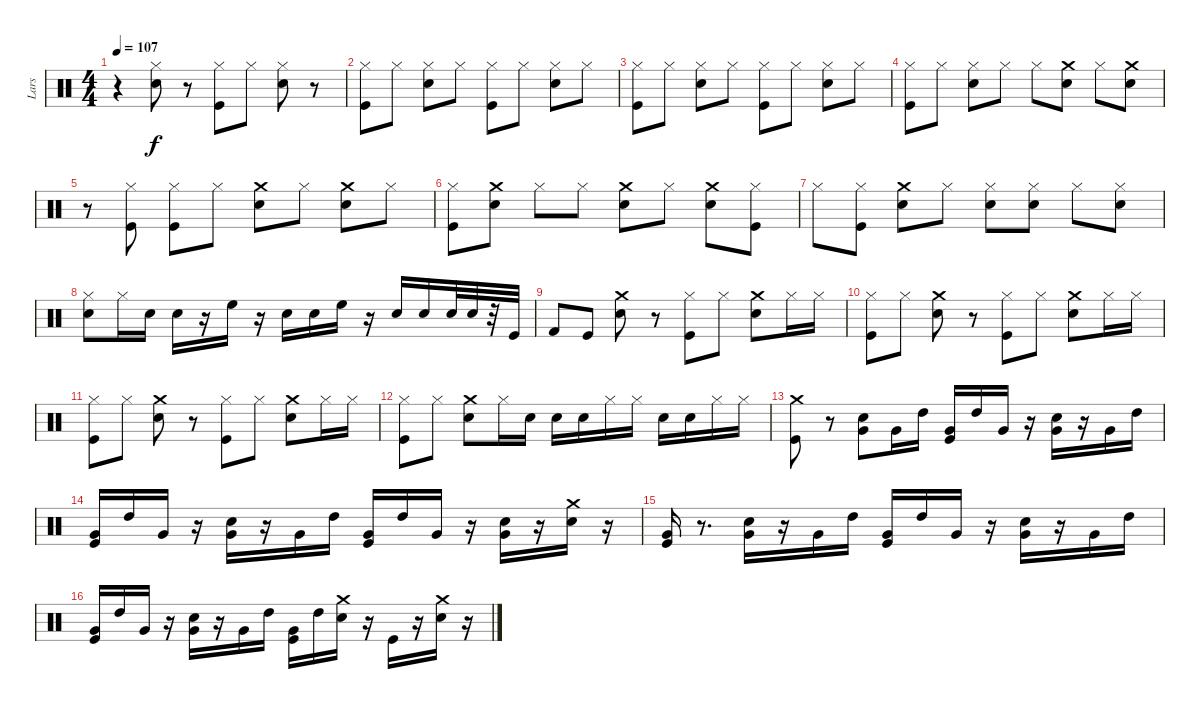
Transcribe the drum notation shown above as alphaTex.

\track ("Lars" "Lars") {instrument percussion}
\staff {score}
\articulation defaults
\ts (4 4)
\tempo 107
\clef neutral
\ks c
r.4{dy f} ("Hi-Hat (closed)" "Snare (hit) 2").8 r.8 ("Kick (hit)" "Hi-Hat (closed)").8 "Hi-Hat (closed)".8 ("Snare (hit) 2" "Hi-Hat (closed)").8 r.8 |
("Hi-Hat (closed)" "Kick (hit)").8 "Hi-Hat (closed)".8 ("Snare (hit) 2" "Hi-Hat (closed)").8 "Hi-Hat (closed)".8 ("Kick (hit)" "Hi-Hat (closed)").8 "Hi-Hat (closed)".8 ("Snare (hit) 2" "Hi-Hat (closed)").8 "Hi-Hat (closed)".8 |
("Hi-Hat (closed)" "Kick (hit)").8 "Hi-Hat (closed)".8 ("Snare (hit) 2" "Hi-Hat (closed)").8 "Hi-Hat (closed)".8 ("Hi-Hat (closed)" "Kick (hit)").8 "Hi-Hat (closed)".8 ("Snare (hit) 2" "Hi-Hat (closed)").8 "Hi-Hat (closed)".8 |
("Hi-Hat (closed)" "Kick (hit)").8 "Hi-Hat (closed)".8 ("Snare (hit) 2" "Hi-Hat (closed)").8 "Hi-Hat (closed)".8 "Hi-Hat (closed)".8 ("Crash medium (hit)" "Snare (hit) 2").8 "Hi-Hat (closed)".8 ("Crash medium (hit)" "Snare (hit) 2").8 |
r.8 ("Kick (hit)" "Hi-Hat (closed)").8 ("Hi-Hat (closed)" "Kick (hit)").8 "Hi-Hat (closed)".8 ("Crash medium (hit)" "Snare (hit) 2").8 "Hi-Hat (closed)".8 ("Crash medium (hit)" "Snare (hit) 2").8 "Hi-Hat (closed)".8 |
("Kick (hit)" "Hi-Hat (closed)").8 ("Crash medium (hit)" "Snare (hit) 2").8 "Hi-Hat (closed)".8 "Hi-Hat (closed)".8 ("Snare (hit) 2" "Crash medium (hit)").8 "Hi-Hat (closed)".8 ("Crash medium (hit)" "Snare (hit) 2").8 ("Hi-Hat (closed)" "Kick (hit)").8 |
"Hi-Hat (closed)".8 ("Hi-Hat (closed)" "Kick (hit)").8 ("Crash medium (hit)" "Snare (hit) 2").8 "Hi-Hat (closed)".8 ("Snare (hit) 2" "Hi-Hat (closed)").8 ("Hi-Hat (closed)" "Snare (hit) 2").8 "Hi-Hat (closed)".8 ("Snare (hit) 2" "Hi-Hat (closed)").8 |
("Hi-Hat (closed)" "Snare (hit) 2").8 "Hi-Hat (closed)".16 "Snare (hit) 2".16 "Snare (hit) 2".16 r.16 "High Floor Tom (hit)".16 r.16 "Snare (hit) 2".16 "Snare (hit) 2".16 "High Floor Tom (hit)".16 r.16 "Snare (hit) 2".16 "Snare (hit) 2".16 "Snare (hit) 2".32 "Snare (hit) 2".32 r.32 "Kick (hit)".32 |
"Kick (hit) 2".8 "Kick (hit)".8 ("Crash medium (hit)" "Snare (hit) 2").8 r.8 ("Hi-Hat (closed)" "Kick (hit)").8 "Hi-Hat (closed)".8 ("Crash medium (hit)" "Snare (hit) 2").8 "Hi-Hat (closed)".16 "Hi-Hat (closed)".16 |
("Hi-Hat (closed)" "Kick (hit)").8 "Hi-Hat (closed)".8 ("Crash medium (hit)" "Snare (hit) 2").8 r.8 ("Hi-Hat (closed)" "Kick (hit)").8 "Hi-Hat (closed)".8 ("Crash medium (hit)" "Snare (hit) 2").8 "Hi-Hat (closed)".16 "Hi-Hat (closed)".16 |
("Hi-Hat (closed)" "Kick (hit)").8 "Hi-Hat (closed)".8 ("Crash medium (hit)" "Snare (hit) 2").8 r.8 ("Hi-Hat (closed)" "Kick (hit)").8 "Hi-Hat (closed)".8 ("Crash medium (hit)" "Snare (hit) 2").8 "Hi-Hat (closed)".16 "Hi-Hat (closed)".16 |
("Hi-Hat (closed)" "Kick (hit)").8 "Hi-Hat (closed)".8 ("Crash medium (hit)" "Snare (hit) 2").8 "Hi-Hat (closed)".16 "Snare (hit) 2".16 "Snare (hit) 2".16 "Snare (hit) 2".16 "Hi-Hat (closed)".16 "Hi-Hat (closed)".16 "Snare (hit) 2".16 "Snare (hit) 2".16 "Hi-Hat (closed)".16 "Hi-Hat (closed)".16 |
("Crash medium (hit)" "Kick (hit)").8 r.8 ("Very Low Tom (hit)" "Snare (hit) 2").8 "Very Low Tom (hit)".16 "High Tom (hit)".16 ("Very Low Tom (hit)" "Kick (hit)").16 "High Tom (hit)".16 "Very Low Tom (hit)".16 r.16 ("Very Low Tom (hit)" "Snare (hit) 2").16 r.16 "Very Low Tom (hit)".16 "High Tom (hit)".16 |
("Very Low Tom (hit)" "Kick (hit)").16 "High Tom (hit)".16 "Very Low Tom (hit)".16 r.16 ("Very Low Tom (hit)" "Snare (hit) 2").16 r.16 "Very Low Tom (hit)".16 "High Tom (hit)".16 ("Very Low Tom (hit)" "Kick (hit)").16 "High Tom (hit)".16 "Very Low Tom (hit)".16 r.16 ("Very Low Tom (hit)" "Snare (hit) 2").16 r.16 ("Crash medium (hit)" "Snare (hit) 2").16 r.16 |
("Very Low Tom (hit)" "Kick (hit)").16 r.8{d} ("Very Low Tom (hit)" "Snare (hit) 2").16 r.16 "Very Low Tom (hit)".16 "High Tom (hit)".16 ("Very Low Tom (hit)" "Kick (hit)").16 "High Tom (hit)".16 "Very Low Tom (hit)".16 r.16 ("Very Low Tom (hit)" "Snare (hit) 2").16 r.16 "Very Low Tom (hit)".16 "High Tom (hit)".16 |
("Very Low Tom (hit)" "Kick (hit)").16 "High Tom (hit)".16 "Very Low Tom (hit)".16 r.16 ("Very Low Tom (hit)" "Snare (hit) 2").16 r.16 "Very Low Tom (hit)".16 "High Tom (hit)".16 ("Very Low Tom (hit)" "Kick (hit)").16 "High Tom (hit)".16 ("Crash medium (hit)" "Snare (hit) 2").16 r.16 "Kick (hit)".16 r.16 ("Crash medium (hit)" "Snare (hit) 2").16 r.16
